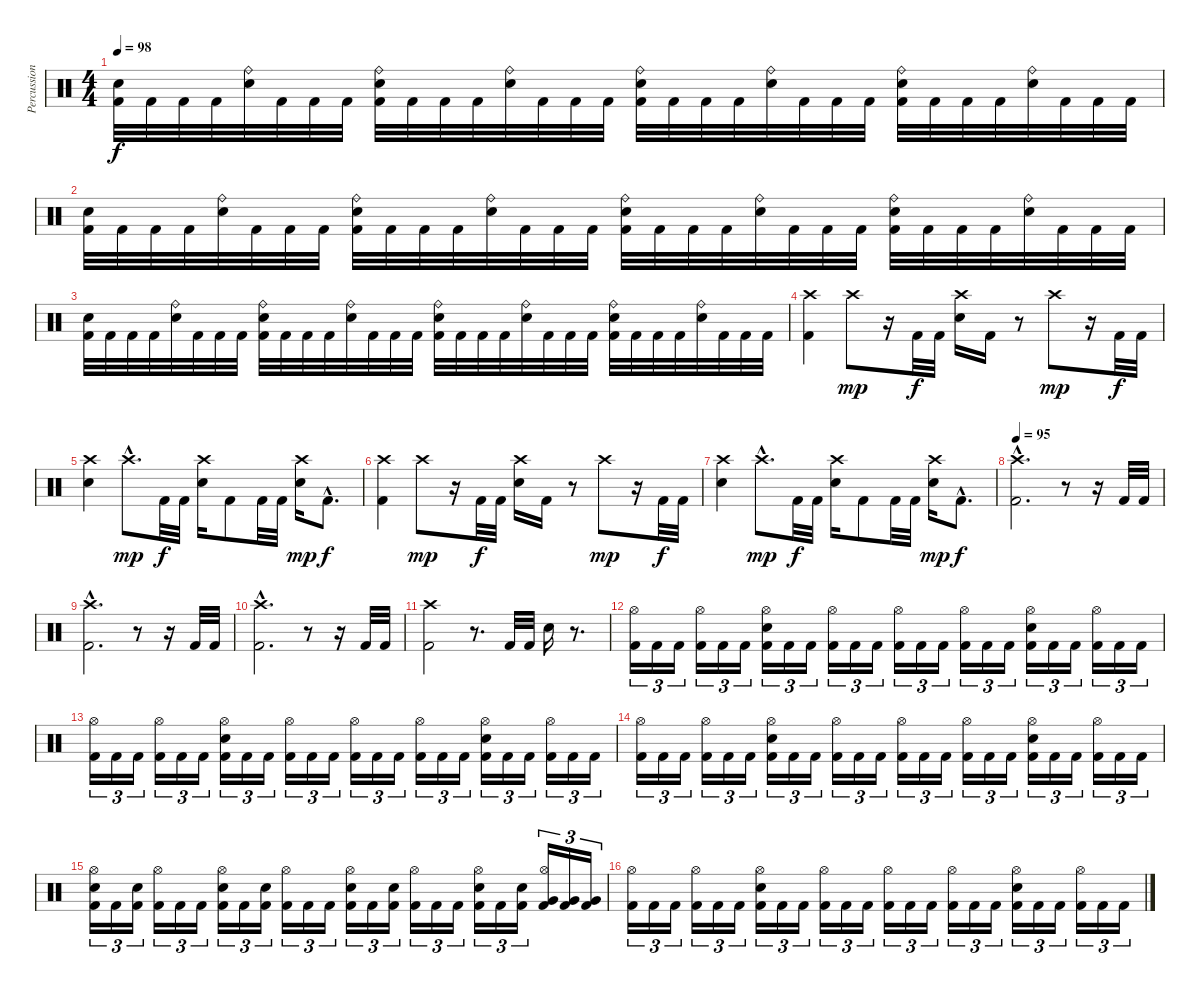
\track ("Percussion" "Percussion") {instrument percussion}
\staff {score}
\articulation defaults
\ts (4 4)
\tempo 98
\clef neutral
\ks c
("Electric Snare (hit)" "Kick (hit) 2").32{dy f} "Kick (hit) 2".32 "Kick (hit) 2".32 "Kick (hit) 2".32 ("Ride (bell)" "Electric Snare (hit)").32 "Kick (hit) 2".32 "Kick (hit) 2".32 "Kick (hit) 2".32 ("Ride (bell)" "Electric Snare (hit)" "Kick (hit) 2").32 "Kick (hit) 2".32 "Kick (hit) 2".32 "Kick (hit) 2".32 ("Ride (bell)" "Electric Snare (hit)").32 "Kick (hit) 2".32 "Kick (hit) 2".32 "Kick (hit) 2".32 ("Ride (bell)" "Electric Snare (hit)" "Kick (hit) 2").32 "Kick (hit) 2".32 "Kick (hit) 2".32 "Kick (hit) 2".32 ("Ride (bell)" "Electric Snare (hit)").32 "Kick (hit) 2".32 "Kick (hit) 2".32 "Kick (hit) 2".32 ("Ride (bell)" "Electric Snare (hit)" "Kick (hit) 2").32 "Kick (hit) 2".32 "Kick (hit) 2".32 "Kick (hit) 2".32 ("Ride (bell)" "Electric Snare (hit)").32 "Kick (hit) 2".32 "Kick (hit) 2".32 "Kick (hit) 2".32 |
("Electric Snare (hit)" "Kick (hit) 2").32 "Kick (hit) 2".32 "Kick (hit) 2".32 "Kick (hit) 2".32 ("Ride (bell)" "Electric Snare (hit)").32 "Kick (hit) 2".32 "Kick (hit) 2".32 "Kick (hit) 2".32 ("Ride (bell)" "Electric Snare (hit)" "Kick (hit) 2").32 "Kick (hit) 2".32 "Kick (hit) 2".32 "Kick (hit) 2".32 ("Ride (bell)" "Electric Snare (hit)").32 "Kick (hit) 2".32 "Kick (hit) 2".32 "Kick (hit) 2".32 ("Ride (bell)" "Electric Snare (hit)" "Kick (hit) 2").32 "Kick (hit) 2".32 "Kick (hit) 2".32 "Kick (hit) 2".32 ("Ride (bell)" "Electric Snare (hit)").32 "Kick (hit) 2".32 "Kick (hit) 2".32 "Kick (hit) 2".32 ("Ride (bell)" "Electric Snare (hit)" "Kick (hit) 2").32 "Kick (hit) 2".32 "Kick (hit) 2".32 "Kick (hit) 2".32 ("Ride (bell)" "Electric Snare (hit)").32 "Kick (hit) 2".32 "Kick (hit) 2".32 "Kick (hit) 2".32 |
("Electric Snare (hit)" "Kick (hit) 2").32 "Kick (hit) 2".32 "Kick (hit) 2".32 "Kick (hit) 2".32 ("Ride (bell)" "Electric Snare (hit)").32 "Kick (hit) 2".32 "Kick (hit) 2".32 "Kick (hit) 2".32 ("Ride (bell)" "Electric Snare (hit)" "Kick (hit) 2").32 "Kick (hit) 2".32 "Kick (hit) 2".32 "Kick (hit) 2".32 ("Ride (bell)" "Electric Snare (hit)").32 "Kick (hit) 2".32 "Kick (hit) 2".32 "Kick (hit) 2".32 ("Ride (bell)" "Electric Snare (hit)" "Kick (hit) 2").32 "Kick (hit) 2".32 "Kick (hit) 2".32 "Kick (hit) 2".32 ("Ride (bell)" "Electric Snare (hit)").32 "Kick (hit) 2".32 "Kick (hit) 2".32 "Kick (hit) 2".32 ("Ride (bell)" "Electric Snare (hit)" "Kick (hit) 2").32 "Kick (hit) 2".32 "Kick (hit) 2".32 "Kick (hit) 2".32 ("Ride (bell)" "Electric Snare (hit)").32 "Kick (hit) 2".32 "Kick (hit) 2".32 "Kick (hit) 2".32 |
("Crash high (hit)" "Kick (hit) 2").4 "Crash high (hit)".8{dy mp} r.16 "Kick (hit) 2".32{dy f} "Kick (hit) 2".32 ("Crash high (hit)" "Electric Snare (hit)").16 "Kick (hit) 2".16 r.8 "Crash high (hit)".8{dy mp} r.16 "Kick (hit) 2".32{dy f} "Kick (hit) 2".32 |
("Crash high (hit)" "Electric Snare (hit)").4 "Crash high (hit)"{hac}.8{d dy mp} "Kick (hit) 2".32{dy f} "Kick (hit) 2".32 ("Crash high (hit)" "Electric Snare (hit)").16 "Kick (hit) 2".8 "Kick (hit) 2".32 "Kick (hit) 2".32 ("Crash high (hit)" "Electric Snare (hit)").16{dy mp} "Kick (hit) 2"{hac}.8{d dy f} |
("Crash high (hit)" "Kick (hit) 2").4 "Crash high (hit)".8{dy mp} r.16 "Kick (hit) 2".32{dy f} "Kick (hit) 2".32 ("Crash high (hit)" "Electric Snare (hit)").16 "Kick (hit) 2".16 r.8 "Crash high (hit)".8{dy mp} r.16 "Kick (hit) 2".32{dy f} "Kick (hit) 2".32 |
("Crash high (hit)" "Electric Snare (hit)").4 "Crash high (hit)"{hac}.8{d dy mp} "Kick (hit) 2".32{dy f} "Kick (hit) 2".32 ("Crash high (hit)" "Electric Snare (hit)").16 "Kick (hit) 2".8 "Kick (hit) 2".32 "Kick (hit) 2".32 ("Crash high (hit)" "Electric Snare (hit)").16{dy mp} "Kick (hit) 2"{hac}.8{d dy f} |
\tempo 95
("Crash high (hit)"{hac} "Kick (hit) 2"{hac}).2{d} r.8 r.16 "Kick (hit) 2".32 "Kick (hit) 2".32 |
("Crash high (hit)"{hac} "Kick (hit) 2"{hac}).2{d} r.8 r.16 "Kick (hit) 2".32 "Kick (hit) 2".32 |
("Crash high (hit)"{hac} "Kick (hit) 2"{hac}).2{d} r.8 r.16 "Kick (hit) 2".32 "Kick (hit) 2".32 |
("Crash high (hit)" "Kick (hit) 2").2 r.8{d} "Kick (hit) 2".32 "Kick (hit) 2".32 "Electric Snare (hit)".16 r.8{d} |
("Hi-Hat (open)" "Kick (hit) 2").16{tu (3 2)} "Kick (hit) 2".16{tu (3 2)} "Kick (hit) 2".16{tu (3 2)} ("Hi-Hat (open)" "Kick (hit) 2").16{tu (3 2)} "Kick (hit) 2".16{tu (3 2)} "Kick (hit) 2".16{tu (3 2)} ("Hi-Hat (open)" "Electric Snare (hit)" "Kick (hit) 2").16{tu (3 2)} "Kick (hit) 2".16{tu (3 2)} "Kick (hit) 2".16{tu (3 2)} ("Hi-Hat (open)" "Kick (hit) 2").16{tu (3 2)} "Kick (hit) 2".16{tu (3 2)} "Kick (hit) 2".16{tu (3 2)} ("Hi-Hat (open)" "Kick (hit) 2").16{tu (3 2)} "Kick (hit) 2".16{tu (3 2)} "Kick (hit) 2".16{tu (3 2)} ("Hi-Hat (open)" "Kick (hit) 2").16{tu (3 2)} "Kick (hit) 2".16{tu (3 2)} "Kick (hit) 2".16{tu (3 2)} ("Hi-Hat (open)" "Electric Snare (hit)" "Kick (hit) 2").16{tu (3 2)} "Kick (hit) 2".16{tu (3 2)} "Kick (hit) 2".16{tu (3 2)} ("Hi-Hat (open)" "Kick (hit) 2").16{tu (3 2)} "Kick (hit) 2".16{tu (3 2)} "Kick (hit) 2".16{tu (3 2)} |
("Hi-Hat (open)" "Kick (hit) 2").16{tu (3 2)} "Kick (hit) 2".16{tu (3 2)} "Kick (hit) 2".16{tu (3 2)} ("Hi-Hat (open)" "Kick (hit) 2").16{tu (3 2)} "Kick (hit) 2".16{tu (3 2)} "Kick (hit) 2".16{tu (3 2)} ("Hi-Hat (open)" "Electric Snare (hit)" "Kick (hit) 2").16{tu (3 2)} "Kick (hit) 2".16{tu (3 2)} "Kick (hit) 2".16{tu (3 2)} ("Hi-Hat (open)" "Kick (hit) 2").16{tu (3 2)} "Kick (hit) 2".16{tu (3 2)} "Kick (hit) 2".16{tu (3 2)} ("Hi-Hat (open)" "Kick (hit) 2").16{tu (3 2)} "Kick (hit) 2".16{tu (3 2)} "Kick (hit) 2".16{tu (3 2)} ("Hi-Hat (open)" "Kick (hit) 2").16{tu (3 2)} "Kick (hit) 2".16{tu (3 2)} "Kick (hit) 2".16{tu (3 2)} ("Hi-Hat (open)" "Electric Snare (hit)" "Kick (hit) 2").16{tu (3 2)} "Kick (hit) 2".16{tu (3 2)} "Kick (hit) 2".16{tu (3 2)} ("Hi-Hat (open)" "Kick (hit) 2").16{tu (3 2)} "Kick (hit) 2".16{tu (3 2)} "Kick (hit) 2".16{tu (3 2)} |
("Hi-Hat (open)" "Kick (hit) 2").16{tu (3 2)} "Kick (hit) 2".16{tu (3 2)} "Kick (hit) 2".16{tu (3 2)} ("Hi-Hat (open)" "Kick (hit) 2").16{tu (3 2)} "Kick (hit) 2".16{tu (3 2)} "Kick (hit) 2".16{tu (3 2)} ("Hi-Hat (open)" "Electric Snare (hit)" "Kick (hit) 2").16{tu (3 2)} "Kick (hit) 2".16{tu (3 2)} "Kick (hit) 2".16{tu (3 2)} ("Hi-Hat (open)" "Kick (hit) 2").16{tu (3 2)} "Kick (hit) 2".16{tu (3 2)} "Kick (hit) 2".16{tu (3 2)} ("Hi-Hat (open)" "Kick (hit) 2").16{tu (3 2)} "Kick (hit) 2".16{tu (3 2)} "Kick (hit) 2".16{tu (3 2)} ("Hi-Hat (open)" "Kick (hit) 2").16{tu (3 2)} "Kick (hit) 2".16{tu (3 2)} "Kick (hit) 2".16{tu (3 2)} ("Hi-Hat (open)" "Electric Snare (hit)" "Kick (hit) 2").16{tu (3 2)} "Kick (hit) 2".16{tu (3 2)} "Kick (hit) 2".16{tu (3 2)} ("Hi-Hat (open)" "Kick (hit) 2").16{tu (3 2)} "Kick (hit) 2".16{tu (3 2)} "Kick (hit) 2".16{tu (3 2)} |
("Hi-Hat (open)" "Electric Snare (hit)" "Kick (hit) 2").16{tu (3 2)} "Kick (hit) 2".16{tu (3 2)} ("Electric Snare (hit)" "Kick (hit) 2").16{tu (3 2)} ("Hi-Hat (open)" "Kick (hit) 2").16{tu (3 2)} "Kick (hit) 2".16{tu (3 2)} "Kick (hit) 2".16{tu (3 2)} ("Hi-Hat (open)" "Electric Snare (hit)" "Kick (hit) 2").16{tu (3 2)} "Kick (hit) 2".16{tu (3 2)} ("Electric Snare (hit)" "Kick (hit) 2").16{tu (3 2)} ("Hi-Hat (open)" "Kick (hit) 2").16{tu (3 2)} "Kick (hit) 2".16{tu (3 2)} "Kick (hit) 2".16{tu (3 2)} ("Hi-Hat (open)" "Electric Snare (hit)" "Kick (hit) 2").16{tu (3 2)} "Kick (hit) 2".16{tu (3 2)} ("Electric Snare (hit)" "Kick (hit) 2").16{tu (3 2)} ("Hi-Hat (open)" "Kick (hit) 2").16{tu (3 2)} "Kick (hit) 2".16{tu (3 2)} "Kick (hit) 2".16{tu (3 2)} ("Hi-Hat (open)" "Electric Snare (hit)" "Kick (hit) 2").16{tu (3 2)} "Kick (hit) 2".16{tu (3 2)} ("Electric Snare (hit)" "Kick (hit) 2").16{tu (3 2)} ("Hi-Hat (open)" "Very Low Tom (hit)" "Kick (hit) 2").16{tu (3 2)} ("Very Low Tom (hit)" "Kick (hit) 2").16{tu (3 2)} ("Very Low Tom (hit)" "Kick (hit) 2").16{tu (3 2)} |
("Hi-Hat (open)" "Kick (hit) 2").16{tu (3 2)} "Kick (hit) 2".16{tu (3 2)} "Kick (hit) 2".16{tu (3 2)} ("Hi-Hat (open)" "Kick (hit) 2").16{tu (3 2)} "Kick (hit) 2".16{tu (3 2)} "Kick (hit) 2".16{tu (3 2)} ("Hi-Hat (open)" "Electric Snare (hit)" "Kick (hit) 2").16{tu (3 2)} "Kick (hit) 2".16{tu (3 2)} "Kick (hit) 2".16{tu (3 2)} ("Hi-Hat (open)" "Kick (hit) 2").16{tu (3 2)} "Kick (hit) 2".16{tu (3 2)} "Kick (hit) 2".16{tu (3 2)} ("Hi-Hat (open)" "Kick (hit) 2").16{tu (3 2)} "Kick (hit) 2".16{tu (3 2)} "Kick (hit) 2".16{tu (3 2)} ("Hi-Hat (open)" "Kick (hit) 2").16{tu (3 2)} "Kick (hit) 2".16{tu (3 2)} "Kick (hit) 2".16{tu (3 2)} ("Hi-Hat (open)" "Electric Snare (hit)" "Kick (hit) 2").16{tu (3 2)} "Kick (hit) 2".16{tu (3 2)} "Kick (hit) 2".16{tu (3 2)} ("Hi-Hat (open)" "Kick (hit) 2").16{tu (3 2)} "Kick (hit) 2".16{tu (3 2)} "Kick (hit) 2".16{tu (3 2)}
